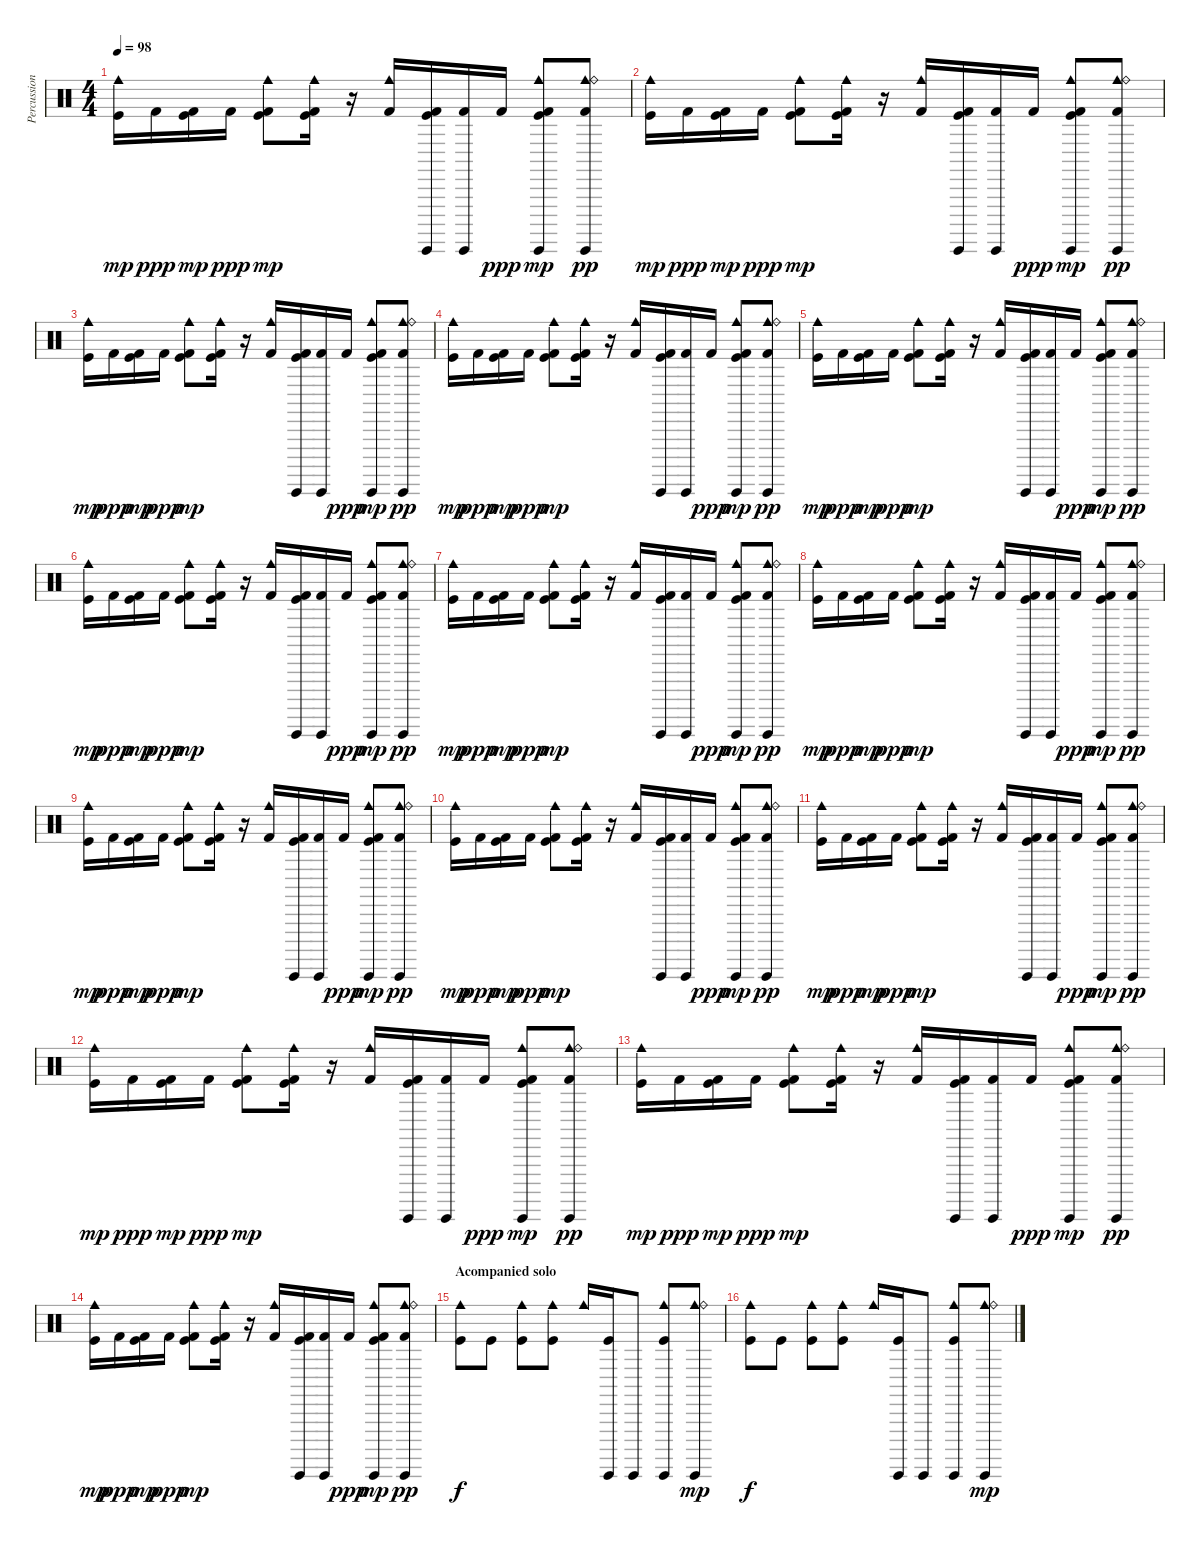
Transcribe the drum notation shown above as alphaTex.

\track ("Percussion" "Percussion") {instrument percussion}
\staff {score}
\articulation defaults
\ts (4 4)
\tempo 98
\clef neutral
\ks c
("Cowbell medium (hit)" "Kick (hit)").16{dy mp} "Kick (hit) 2".16{dy ppp} ("Kick (hit) 2" "Kick (hit)").16{dy mp} "Kick (hit) 2".16{dy ppp} ("Kick (hit) 2" "Cowbell medium (hit)" "Kick (hit)").8{dy mp} ("Kick (hit) 2" "Cowbell medium (hit)" "Kick (hit)").16 r.16 ("Kick (hit) 2" "Cowbell medium (hit)").16 ("Kick (hit) 2" "Guiro (hit)" "Kick (hit)").16 ("Kick (hit) 2" "Guiro (hit)").16 "Kick (hit) 2".16{dy ppp} ("Kick (hit) 2" "Cowbell medium (hit)" "Guiro (hit)" "Kick (hit)").8{dy mp} ("Kick (hit) 2" "Cowbell medium (hit)" "Guiro (hit)" "Ride (bell)").8{dy pp} |
("Cowbell medium (hit)" "Kick (hit)").16{dy mp} "Kick (hit) 2".16{dy ppp} ("Kick (hit) 2" "Kick (hit)").16{dy mp} "Kick (hit) 2".16{dy ppp} ("Kick (hit) 2" "Cowbell medium (hit)" "Kick (hit)").8{dy mp} ("Kick (hit) 2" "Cowbell medium (hit)" "Kick (hit)").16 r.16 ("Kick (hit) 2" "Cowbell medium (hit)").16 ("Kick (hit) 2" "Guiro (hit)" "Kick (hit)").16 ("Kick (hit) 2" "Guiro (hit)").16 "Kick (hit) 2".16{dy ppp} ("Kick (hit) 2" "Cowbell medium (hit)" "Guiro (hit)" "Kick (hit)").8{dy mp} ("Kick (hit) 2" "Cowbell medium (hit)" "Guiro (hit)" "Ride (bell)").8{dy pp} |
("Cowbell medium (hit)" "Kick (hit)").16{dy mp} "Kick (hit) 2".16{dy ppp} ("Kick (hit) 2" "Kick (hit)").16{dy mp} "Kick (hit) 2".16{dy ppp} ("Kick (hit) 2" "Cowbell medium (hit)" "Kick (hit)").8{dy mp} ("Kick (hit) 2" "Cowbell medium (hit)" "Kick (hit)").16 r.16 ("Kick (hit) 2" "Cowbell medium (hit)").16 ("Kick (hit) 2" "Guiro (hit)" "Kick (hit)").16 ("Kick (hit) 2" "Guiro (hit)").16 "Kick (hit) 2".16{dy ppp} ("Kick (hit) 2" "Cowbell medium (hit)" "Guiro (hit)" "Kick (hit)").8{dy mp} ("Kick (hit) 2" "Cowbell medium (hit)" "Guiro (hit)" "Ride (bell)").8{dy pp} |
("Cowbell medium (hit)" "Kick (hit)").16{dy mp} "Kick (hit) 2".16{dy ppp} ("Kick (hit) 2" "Kick (hit)").16{dy mp} "Kick (hit) 2".16{dy ppp} ("Kick (hit) 2" "Cowbell medium (hit)" "Kick (hit)").8{dy mp} ("Kick (hit) 2" "Cowbell medium (hit)" "Kick (hit)").16 r.16 ("Kick (hit) 2" "Cowbell medium (hit)").16 ("Kick (hit) 2" "Guiro (hit)" "Kick (hit)").16 ("Kick (hit) 2" "Guiro (hit)").16 "Kick (hit) 2".16{dy ppp} ("Kick (hit) 2" "Cowbell medium (hit)" "Guiro (hit)" "Kick (hit)").8{dy mp} ("Kick (hit) 2" "Cowbell medium (hit)" "Guiro (hit)" "Ride (bell)").8{dy pp} |
("Cowbell medium (hit)" "Kick (hit)").16{dy mp} "Kick (hit) 2".16{dy ppp} ("Kick (hit) 2" "Kick (hit)").16{dy mp} "Kick (hit) 2".16{dy ppp} ("Kick (hit) 2" "Cowbell medium (hit)" "Kick (hit)").8{dy mp} ("Kick (hit) 2" "Cowbell medium (hit)" "Kick (hit)").16 r.16 ("Kick (hit) 2" "Cowbell medium (hit)").16 ("Kick (hit) 2" "Guiro (hit)" "Kick (hit)").16 ("Kick (hit) 2" "Guiro (hit)").16 "Kick (hit) 2".16{dy ppp} ("Kick (hit) 2" "Cowbell medium (hit)" "Guiro (hit)" "Kick (hit)").8{dy mp} ("Kick (hit) 2" "Cowbell medium (hit)" "Guiro (hit)" "Ride (bell)").8{dy pp} |
("Cowbell medium (hit)" "Kick (hit)").16{dy mp} "Kick (hit) 2".16{dy ppp} ("Kick (hit) 2" "Kick (hit)").16{dy mp} "Kick (hit) 2".16{dy ppp} ("Kick (hit) 2" "Cowbell medium (hit)" "Kick (hit)").8{dy mp} ("Kick (hit) 2" "Cowbell medium (hit)" "Kick (hit)").16 r.16 ("Kick (hit) 2" "Cowbell medium (hit)").16 ("Kick (hit) 2" "Guiro (hit)" "Kick (hit)").16 ("Kick (hit) 2" "Guiro (hit)").16 "Kick (hit) 2".16{dy ppp} ("Kick (hit) 2" "Cowbell medium (hit)" "Guiro (hit)" "Kick (hit)").8{dy mp} ("Kick (hit) 2" "Cowbell medium (hit)" "Guiro (hit)" "Ride (bell)").8{dy pp} |
("Cowbell medium (hit)" "Kick (hit)").16{dy mp} "Kick (hit) 2".16{dy ppp} ("Kick (hit) 2" "Kick (hit)").16{dy mp} "Kick (hit) 2".16{dy ppp} ("Kick (hit) 2" "Cowbell medium (hit)" "Kick (hit)").8{dy mp} ("Kick (hit) 2" "Cowbell medium (hit)" "Kick (hit)").16 r.16 ("Kick (hit) 2" "Cowbell medium (hit)").16 ("Kick (hit) 2" "Guiro (hit)" "Kick (hit)").16 ("Kick (hit) 2" "Guiro (hit)").16 "Kick (hit) 2".16{dy ppp} ("Kick (hit) 2" "Cowbell medium (hit)" "Guiro (hit)" "Kick (hit)").8{dy mp} ("Kick (hit) 2" "Cowbell medium (hit)" "Guiro (hit)" "Ride (bell)").8{dy pp} |
("Cowbell medium (hit)" "Kick (hit)").16{dy mp} "Kick (hit) 2".16{dy ppp} ("Kick (hit) 2" "Kick (hit)").16{dy mp} "Kick (hit) 2".16{dy ppp} ("Kick (hit) 2" "Cowbell medium (hit)" "Kick (hit)").8{dy mp} ("Kick (hit) 2" "Cowbell medium (hit)" "Kick (hit)").16 r.16 ("Kick (hit) 2" "Cowbell medium (hit)").16 ("Kick (hit) 2" "Guiro (hit)" "Kick (hit)").16 ("Kick (hit) 2" "Guiro (hit)").16 "Kick (hit) 2".16{dy ppp} ("Kick (hit) 2" "Cowbell medium (hit)" "Guiro (hit)" "Kick (hit)").8{dy mp} ("Kick (hit) 2" "Cowbell medium (hit)" "Guiro (hit)" "Ride (bell)").8{dy pp} |
("Cowbell medium (hit)" "Kick (hit)").16{dy mp} "Kick (hit) 2".16{dy ppp} ("Kick (hit) 2" "Kick (hit)").16{dy mp} "Kick (hit) 2".16{dy ppp} ("Kick (hit) 2" "Cowbell medium (hit)" "Kick (hit)").8{dy mp} ("Kick (hit) 2" "Cowbell medium (hit)" "Kick (hit)").16 r.16 ("Kick (hit) 2" "Cowbell medium (hit)").16 ("Kick (hit) 2" "Guiro (hit)" "Kick (hit)").16 ("Kick (hit) 2" "Guiro (hit)").16 "Kick (hit) 2".16{dy ppp} ("Kick (hit) 2" "Cowbell medium (hit)" "Guiro (hit)" "Kick (hit)").8{dy mp} ("Kick (hit) 2" "Cowbell medium (hit)" "Guiro (hit)" "Ride (bell)").8{dy pp} |
("Cowbell medium (hit)" "Kick (hit)").16{dy mp} "Kick (hit) 2".16{dy ppp} ("Kick (hit) 2" "Kick (hit)").16{dy mp} "Kick (hit) 2".16{dy ppp} ("Kick (hit) 2" "Cowbell medium (hit)" "Kick (hit)").8{dy mp} ("Kick (hit) 2" "Cowbell medium (hit)" "Kick (hit)").16 r.16 ("Kick (hit) 2" "Cowbell medium (hit)").16 ("Kick (hit) 2" "Guiro (hit)" "Kick (hit)").16 ("Kick (hit) 2" "Guiro (hit)").16 "Kick (hit) 2".16{dy ppp} ("Kick (hit) 2" "Cowbell medium (hit)" "Guiro (hit)" "Kick (hit)").8{dy mp} ("Kick (hit) 2" "Cowbell medium (hit)" "Guiro (hit)" "Ride (bell)").8{dy pp} |
("Cowbell medium (hit)" "Kick (hit)").16{dy mp} "Kick (hit) 2".16{dy ppp} ("Kick (hit) 2" "Kick (hit)").16{dy mp} "Kick (hit) 2".16{dy ppp} ("Kick (hit) 2" "Cowbell medium (hit)" "Kick (hit)").8{dy mp} ("Kick (hit) 2" "Cowbell medium (hit)" "Kick (hit)").16 r.16 ("Kick (hit) 2" "Cowbell medium (hit)").16 ("Kick (hit) 2" "Guiro (hit)" "Kick (hit)").16 ("Kick (hit) 2" "Guiro (hit)").16 "Kick (hit) 2".16{dy ppp} ("Kick (hit) 2" "Cowbell medium (hit)" "Guiro (hit)" "Kick (hit)").8{dy mp} ("Kick (hit) 2" "Cowbell medium (hit)" "Guiro (hit)" "Ride (bell)").8{dy pp} |
("Cowbell medium (hit)" "Kick (hit)").16{dy mp} "Kick (hit) 2".16{dy ppp} ("Kick (hit) 2" "Kick (hit)").16{dy mp} "Kick (hit) 2".16{dy ppp} ("Kick (hit) 2" "Cowbell medium (hit)" "Kick (hit)").8{dy mp} ("Kick (hit) 2" "Cowbell medium (hit)" "Kick (hit)").16 r.16 ("Kick (hit) 2" "Cowbell medium (hit)").16 ("Kick (hit) 2" "Guiro (hit)" "Kick (hit)").16 ("Kick (hit) 2" "Guiro (hit)").16 "Kick (hit) 2".16{dy ppp} ("Kick (hit) 2" "Cowbell medium (hit)" "Guiro (hit)" "Kick (hit)").8{dy mp} ("Kick (hit) 2" "Cowbell medium (hit)" "Guiro (hit)" "Ride (bell)").8{dy pp} |
("Cowbell medium (hit)" "Kick (hit)").16{dy mp} "Kick (hit) 2".16{dy ppp} ("Kick (hit) 2" "Kick (hit)").16{dy mp} "Kick (hit) 2".16{dy ppp} ("Kick (hit) 2" "Cowbell medium (hit)" "Kick (hit)").8{dy mp} ("Kick (hit) 2" "Cowbell medium (hit)" "Kick (hit)").16 r.16 ("Kick (hit) 2" "Cowbell medium (hit)").16 ("Kick (hit) 2" "Guiro (hit)" "Kick (hit)").16 ("Kick (hit) 2" "Guiro (hit)").16 "Kick (hit) 2".16{dy ppp} ("Kick (hit) 2" "Cowbell medium (hit)" "Guiro (hit)" "Kick (hit)").8{dy mp} ("Kick (hit) 2" "Cowbell medium (hit)" "Guiro (hit)" "Ride (bell)").8{dy pp} |
("Cowbell medium (hit)" "Kick (hit)").16{dy mp} "Kick (hit) 2".16{dy ppp} ("Kick (hit) 2" "Kick (hit)").16{dy mp} "Kick (hit) 2".16{dy ppp} ("Kick (hit) 2" "Cowbell medium (hit)" "Kick (hit)").8{dy mp} ("Kick (hit) 2" "Cowbell medium (hit)" "Kick (hit)").16 r.16 ("Kick (hit) 2" "Cowbell medium (hit)").16 ("Kick (hit) 2" "Guiro (hit)" "Kick (hit)").16 ("Kick (hit) 2" "Guiro (hit)").16 "Kick (hit) 2".16{dy ppp} ("Kick (hit) 2" "Cowbell medium (hit)" "Guiro (hit)" "Kick (hit)").8{dy mp} ("Kick (hit) 2" "Cowbell medium (hit)" "Guiro (hit)" "Ride (bell)").8{dy pp} |
\section ("" "Acompanied solo")
("Cowbell medium (hit)" "Kick (hit)").8{dy f} "Kick (hit)".8 ("Cowbell medium (hit)" "Kick (hit)").8 ("Cowbell medium (hit)" "Kick (hit)").8 "Cowbell medium (hit)".16 ("Guiro (hit)" "Kick (hit)").16 "Guiro (hit)".8 ("Cowbell medium (hit)" "Guiro (hit)" "Kick (hit)").8 ("Cowbell medium (hit)" "Guiro (hit)" "Ride (bell)").8{dy mp} |
("Cowbell medium (hit)" "Kick (hit)").8{dy f} "Kick (hit)".8 ("Cowbell medium (hit)" "Kick (hit)").8 ("Cowbell medium (hit)" "Kick (hit)").8 "Cowbell medium (hit)".16 ("Guiro (hit)" "Kick (hit)").16 "Guiro (hit)".8 ("Cowbell medium (hit)" "Guiro (hit)" "Kick (hit)").8 ("Cowbell medium (hit)" "Guiro (hit)" "Ride (bell)").8{dy mp}
